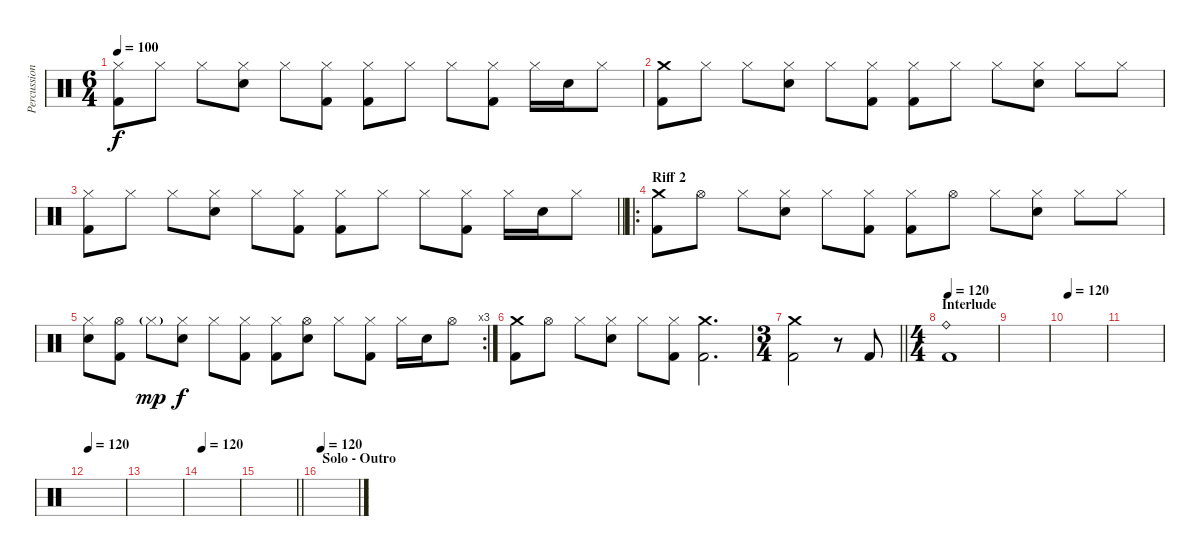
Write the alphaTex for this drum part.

\track ("Percussions" "Percussion") {instrument percussion}
\staff {score}
\articulation defaults
\ts (6 4)
\tempo 100
\clef neutral
\ks c
("Hi-Hat (closed)" "Kick (hit) 2").8{dy f} "Hi-Hat (closed)".8 "Hi-Hat (closed)".8 ("Electric Snare (hit)" "Hi-Hat (closed)").8 "Hi-Hat (closed)".8 ("Hi-Hat (closed)" "Kick (hit) 2").8 ("Hi-Hat (closed)" "Kick (hit) 2").8 "Hi-Hat (closed)".8 "Hi-Hat (closed)".8 ("Hi-Hat (closed)" "Kick (hit) 2").8 "Hi-Hat (closed)".16 "Electric Snare (hit)".16 "Hi-Hat (closed)".8 |
("Crash medium (hit)" "Kick (hit) 2").8 "Hi-Hat (closed)".8 "Hi-Hat (closed)".8 ("Electric Snare (hit)" "Hi-Hat (closed)").8 "Hi-Hat (closed)".8 ("Hi-Hat (closed)" "Kick (hit) 2").8 ("Hi-Hat (closed)" "Kick (hit) 2").8 "Hi-Hat (closed)".8 "Hi-Hat (closed)".8 ("Electric Snare (hit)" "Hi-Hat (closed)").8 "Hi-Hat (closed)".8 "Hi-Hat (closed)".8 |
\barLineRight lightlight
("Hi-Hat (closed)" "Kick (hit) 2").8 "Hi-Hat (closed)".8 "Hi-Hat (closed)".8 ("Electric Snare (hit)" "Hi-Hat (closed)").8 "Hi-Hat (closed)".8 ("Hi-Hat (closed)" "Kick (hit) 2").8 ("Hi-Hat (closed)" "Kick (hit) 2").8 "Hi-Hat (closed)".8 "Hi-Hat (closed)".8 ("Hi-Hat (closed)" "Kick (hit) 2").8 "Hi-Hat (closed)".16 "Electric Snare (hit)".16 "Hi-Hat (closed)".8 |
\ro
\section ("" "Riff 2")
("Crash medium (hit)" "Kick (hit) 2").8 "Hi-Hat (open)".8 "Hi-Hat (closed)".8 ("Electric Snare (hit)" "Hi-Hat (closed)").8 "Hi-Hat (closed)".8 ("Hi-Hat (closed)" "Kick (hit) 2").8 ("Hi-Hat (closed)" "Kick (hit) 2").8 "Hi-Hat (open)".8 "Hi-Hat (closed)".8 ("Electric Snare (hit)" "Hi-Hat (closed)").8 "Hi-Hat (closed)".8 "Hi-Hat (closed)".8 |
\rc 3
("Electric Snare (hit)" "Hi-Hat (closed)").8 ("Kick (hit) 2" "Hi-Hat (open)").8 "Hi-Hat (closed)"{g}.8{dy mp} ("Electric Snare (hit)" "Hi-Hat (closed)").8{dy f} "Hi-Hat (closed)".8 ("Kick (hit) 2" "Hi-Hat (closed)").8 ("Kick (hit) 2" "Hi-Hat (closed)").8 ("Electric Snare (hit)" "Hi-Hat (open)").8 "Hi-Hat (closed)".8 ("Kick (hit) 2" "Hi-Hat (closed)").8 "Hi-Hat (closed)".16 "Electric Snare (hit)".16 "Hi-Hat (open)".8 |
("Crash medium (hit)" "Kick (hit) 2").8 "Hi-Hat (open)".8 "Hi-Hat (closed)".8 ("Electric Snare (hit)" "Hi-Hat (closed)").8 "Hi-Hat (closed)".8 ("Hi-Hat (closed)" "Kick (hit) 2").8 ("Crash medium (hit)" "Kick (hit) 2").2{d} |
\ts (3 4)
\barLineRight lightlight
("Crash medium (hit)" "Kick (hit) 2").2 r.8 "Kick (hit) 2".8 |
\ts (4 4)
\section ("" "Interlude")
\tempo 120
("Ride (bell)" "Kick (hit) 2").1 |
|
\tempo 120
|
|
\tempo 120
|
|
\tempo 120
|
\barLineRight lightlight
|
\section ("" "Solo - Outro")
\tempo 120
